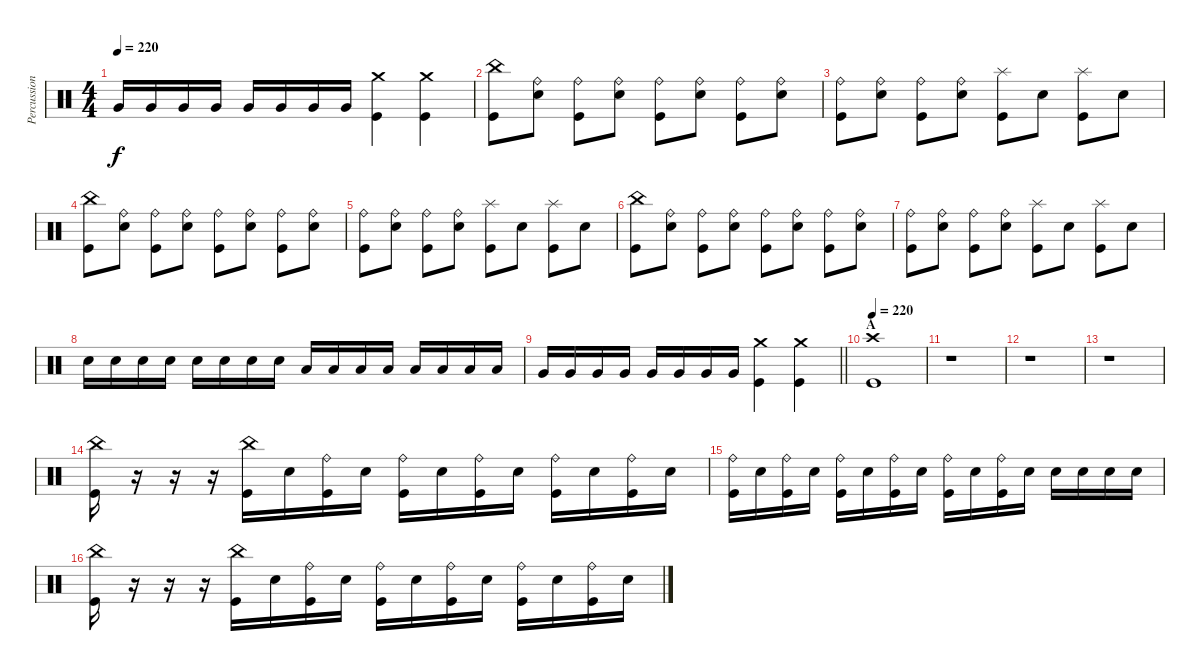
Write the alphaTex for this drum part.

\track ("Percussion" "Percussion") {instrument percussion}
\staff {score}
\articulation defaults
\ts (4 4)
\tempo 220
\clef neutral
\ks c "Very Low Tom (hit)".16{dy f} "Very Low Tom (hit)".16 "Very Low Tom (hit)".16 "Very Low Tom (hit)".16 "Very Low Tom (hit)".16 "Very Low Tom (hit)".16 "Very Low Tom (hit)".16 "Very Low Tom (hit)".16
("Crash medium (hit)" "Kick (hit)").4 ("Crash medium (hit)" "Kick (hit)").4 |
("China (hit)" "Kick (hit)").8 ("Ride (bell)" "Snare (hit) 2").8 ("Ride (bell)" "Kick (hit)").8 ("Ride (bell)" "Snare (hit) 2").8 ("Ride (bell)" "Kick (hit)").8 ("Ride (bell)" "Snare (hit) 2").8 ("Ride (bell)" "Kick (hit)").8 ("Ride (bell)" "Snare (hit) 2").8 |
("Ride (bell)" "Kick (hit)").8 ("Ride (bell)" "Snare (hit) 2").8 ("Ride (bell)" "Kick (hit)").8 ("Ride (bell)" "Snare (hit) 2").8 ("Splash (hit)" "Kick (hit)").8 "Snare (hit) 2".8 ("Splash (hit)" "Kick (hit)").8 "Snare (hit) 2".8 |
("China (hit)" "Kick (hit)").8 ("Ride (bell)" "Snare (hit) 2").8 ("Ride (bell)" "Kick (hit)").8 ("Ride (bell)" "Snare (hit) 2").8 ("Ride (bell)" "Kick (hit)").8 ("Ride (bell)" "Snare (hit) 2").8 ("Ride (bell)" "Kick (hit)").8 ("Ride (bell)" "Snare (hit) 2").8 |
("Ride (bell)" "Kick (hit)").8 ("Ride (bell)" "Snare (hit) 2").8 ("Ride (bell)" "Kick (hit)").8 ("Ride (bell)" "Snare (hit) 2").8 ("Splash (hit)" "Kick (hit)").8 "Snare (hit) 2".8 ("Splash (hit)" "Kick (hit)").8 "Snare (hit) 2".8 |
("China (hit)" "Kick (hit)").8 ("Ride (bell)" "Snare (hit) 2").8 ("Ride (bell)" "Kick (hit)").8 ("Ride (bell)" "Snare (hit) 2").8 ("Ride (bell)" "Kick (hit)").8 ("Ride (bell)" "Snare (hit) 2").8 ("Ride (bell)" "Kick (hit)").8 ("Ride (bell)" "Snare (hit) 2").8 |
("Ride (bell)" "Kick (hit)").8 ("Ride (bell)" "Snare (hit) 2").8 ("Ride (bell)" "Kick (hit)").8 ("Ride (bell)" "Snare (hit) 2").8 ("Splash (hit)" "Kick (hit)").8 "Snare (hit) 2".8 ("Splash (hit)" "Kick (hit)").8 "Snare (hit) 2".8 |
"Snare (hit) 2".16 "Snare (hit) 2".16 "Snare (hit) 2".16 "Snare (hit) 2".16 "Snare (hit) 2".16 "Snare (hit) 2".16 "Snare (hit) 2".16 "Snare (hit) 2".16 "Low Tom (hit)".16 "Low Tom (hit)".16 "Low Tom (hit)".16 "Low Tom (hit)".16 "Low Tom (hit)".16 "Low Tom (hit)".16 "Low Tom (hit)".16 "Low Tom (hit)".16 |
\barLineRight lightlight "Very Low Tom (hit)".16 "Very Low Tom (hit)".16 "Very Low Tom (hit)".16 "Very Low Tom (hit)".16 "Very Low Tom (hit)".16 "Very Low Tom (hit)".16 "Very Low Tom (hit)".16 "Very Low Tom (hit)".16
("Crash medium (hit)" "Kick (hit)").4 ("Crash medium (hit)" "Kick (hit)").4 |
\section ("" "A")
\tempo 220
("Crash high (hit)" "Kick (hit)").1 |
r.1 |
r.1 |
r.1 |
("China (hit)" "Kick (hit)").16 r.16 r.16 r.16 ("China (hit)" "Kick (hit)").16 "Snare (hit) 2".16 ("Ride (bell)" "Kick (hit)").16 "Snare (hit) 2".16 ("Ride (bell)" "Kick (hit)").16 "Snare (hit) 2".16 ("Ride (bell)" "Kick (hit)").16 "Snare (hit) 2".16 ("Ride (bell)" "Kick (hit)").16 "Snare (hit) 2".16 ("Ride (bell)" "Kick (hit)").16 "Snare (hit) 2".16 |
("Ride (bell)" "Kick (hit)").16 "Snare (hit) 2".16 ("Ride (bell)" "Kick (hit)").16 "Snare (hit) 2".16 ("Ride (bell)" "Kick (hit)").16 "Snare (hit) 2".16 ("Ride (bell)" "Kick (hit)").16 "Snare (hit) 2".16 ("Ride (bell)" "Kick (hit)").16 "Snare (hit) 2".16 ("Ride (bell)" "Kick (hit)").16 "Snare (hit) 2".16 "Snare (hit) 2".16 "Snare (hit) 2".16 "Snare (hit) 2".16 "Snare (hit) 2".16 |
("China (hit)" "Kick (hit)").16 r.16 r.16 r.16 ("China (hit)" "Kick (hit)").16 "Snare (hit) 2".16 ("Ride (bell)" "Kick (hit)").16 "Snare (hit) 2".16 ("Ride (bell)" "Kick (hit)").16 "Snare (hit) 2".16 ("Ride (bell)" "Kick (hit)").16 "Snare (hit) 2".16 ("Ride (bell)" "Kick (hit)").16 "Snare (hit) 2".16 ("Ride (bell)" "Kick (hit)").16 "Snare (hit) 2".16
